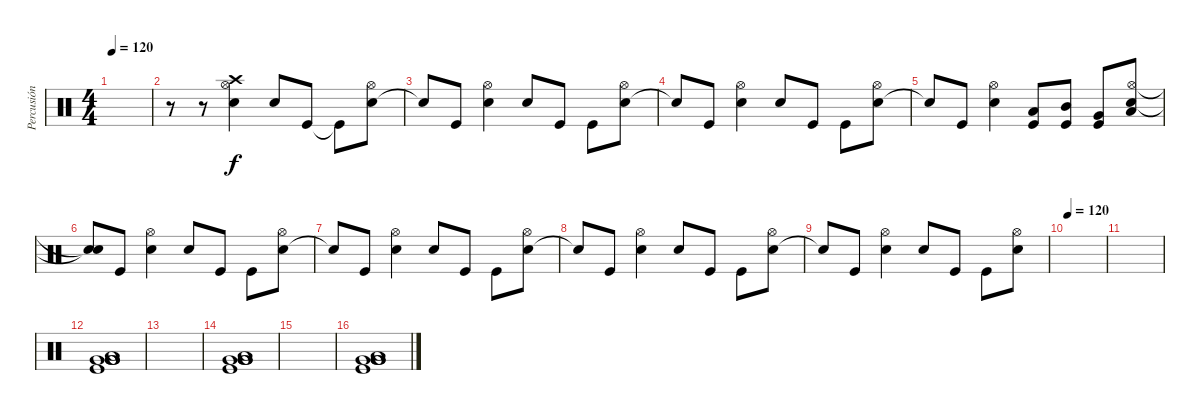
\track ("Percusión" "Percusión") {instrument percussion}
\staff {score}
\articulation defaults
\ts (4 4)
\tempo 120
\clef neutral
\ks c
|
r.8 r.8 ("Electric Snare (hit)" "Hi-Hat (open)" "Crash high (hit)").4 "Snare (hit) 2".8 "Kick (hit)".8 "Kick (hit)"{t}.8 ("Electric Snare (hit)" "Hi-Hat (open)").8 |
"Snare (hit)"{t}.8 "Kick (hit)".8 ("Electric Snare (hit)" "Hi-Hat (open)").4 "Snare (hit) 2".8 "Kick (hit)".8 "Kick (hit)".8 ("Electric Snare (hit)" "Hi-Hat (open)").8 |
"Snare (hit)"{t}.8 "Kick (hit)".8 ("Electric Snare (hit)" "Hi-Hat (open)").4 "Snare (hit) 2".8 "Kick (hit)".8 "Kick (hit)".8 ("Electric Snare (hit)" "Hi-Hat (open)").8 |
"Snare (hit)"{t}.8 "Kick (hit)".8 ("Electric Snare (hit)" "Hi-Hat (open)").4 ("Kick (hit)" "Low Tom (hit)").8 ("Kick (hit)" "Mid Tom (hit)").8 ("Kick (hit)" "Very Low Tom (hit)").8 ("Electric Snare (hit)" "Hi-Hat (open)" "Low Floor Tom (hit)").8 |
("Snare (hit)"{t} "Snare (hit)"{t}).8 "Kick (hit)".8 ("Electric Snare (hit)" "Hi-Hat (open)").4 "Snare (hit) 2".8 "Kick (hit)".8 "Kick (hit)".8 ("Electric Snare (hit)" "Hi-Hat (open)").8 |
"Snare (hit)"{t}.8 "Kick (hit)".8 ("Electric Snare (hit)" "Hi-Hat (open)").4 "Snare (hit) 2".8 "Kick (hit)".8 "Kick (hit)".8 ("Electric Snare (hit)" "Hi-Hat (open)").8 |
"Snare (hit)"{t}.8 "Kick (hit)".8 ("Electric Snare (hit)" "Hi-Hat (open)").4 "Snare (hit) 2".8 "Kick (hit)".8 "Kick (hit)".8 ("Electric Snare (hit)" "Hi-Hat (open)").8 |
"Snare (hit)"{t}.8 "Kick (hit)".8 ("Electric Snare (hit)" "Hi-Hat (open)").4 "Snare (hit) 2".8 "Kick (hit)".8 "Kick (hit)".8 ("Electric Snare (hit)" "Hi-Hat (open)").8 |
\tempo 120
|
|
("Very Low Tom (hit)" "Very Low Tom (hit)" "Kick (hit)" "Very Low Tom (hit)" "Very Low Tom (hit)" "Low Tom (hit)").1 |
|
("Very Low Tom (hit)" "Very Low Tom (hit)" "Kick (hit)" "Very Low Tom (hit)" "Very Low Tom (hit)" "Low Tom (hit)").1 |
|
("Very Low Tom (hit)" "Very Low Tom (hit)" "Kick (hit)" "Very Low Tom (hit)" "Very Low Tom (hit)" "Low Tom (hit)").1
